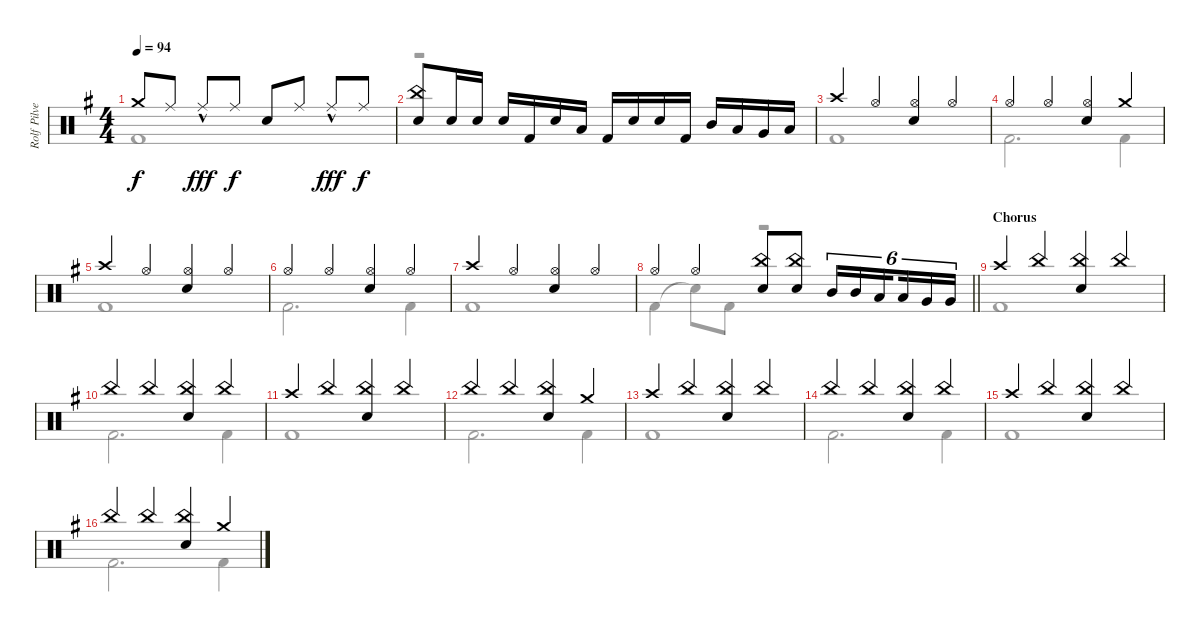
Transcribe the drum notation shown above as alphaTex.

\track ("Rolf Pilve - drums" "Rolf Pilve") {instrument percussion}
\staff {score}
\articulation defaults
\voice
\ts (4 4)
\tempo 94
\clef neutral
\ks eminor "Crash medium (hit)".8{dy f} "Ride (middle)".8 "Ride (middle)"{hac}.8{dy fff} "Ride (middle)".8{dy f} "Snare (hit) 2".8 "Ride (middle)".8 "Ride (middle)"{hac}.8{dy fff} "Ride (middle)".8{dy f}
|
("China (hit)" "Snare (hit) 2").8 "Snare (hit) 2".16 "Snare (hit) 2".16 "Snare (hit) 2".16 "Kick (hit) 2".16 "Snare (hit) 2".16 "Low Tom (hit)".16 "Kick (hit) 2".16 "Snare (hit) 2".16 "Snare (hit) 2".16 "Kick (hit) 2".16 "Mid Tom (hit)".16 "Low Tom (hit)".16 "Very Low Tom (hit)".16 "Low Floor Tom (hit)".16 |
"Crash high (hit)".4 "Hi-Hat (open)".4 ("Hi-Hat (open)" "Snare (hit) 2").4 "Hi-Hat (open)".4 |
"Hi-Hat (open)".4 "Hi-Hat (open)".4 ("Hi-Hat (open)" "Snare (hit) 2").4 "Crash medium (hit)".4 |
"Crash high (hit)".4 "Hi-Hat (open)".4 ("Hi-Hat (open)" "Snare (hit) 2").4 "Hi-Hat (open)".4 |
"Hi-Hat (open)".4 "Hi-Hat (open)".4 ("Hi-Hat (open)" "Snare (hit) 2").4 "Hi-Hat (open)".4 |
"Crash high (hit)".4 "Hi-Hat (open)".4 ("Hi-Hat (open)" "Snare (hit) 2").4 "Hi-Hat (open)".4 |
\barLineRight lightlight "Hi-Hat (open)".4 "Hi-Hat (open)".4
("China (hit)" "Snare (hit) 2").8 ("China (hit)" "Snare (hit) 2").8 "Mid Tom (hit)".16{tu (6 4)} "Mid Tom (hit)".16{tu (6 4)} "Low Tom (hit)".16{tu (6 4) beam splitsecondary} "Low Tom (hit)".16{tu (6 4)} "Very Low Tom (hit)".16{tu (6 4)} "Very Low Tom (hit)".16{tu (6 4)} |
\section ("" "Chorus")
"Crash high (hit)".4 "China (hit)".4 ("China (hit)" "Snare (hit) 2").4 "China (hit)".4 |
"China (hit)".4 "China (hit)".4 ("China (hit)" "Snare (hit) 2").4 "China (hit)".4 |
"Crash high (hit)".4 "China (hit)".4 ("China (hit)" "Snare (hit) 2").4 "China (hit)".4 |
"China (hit)".4 "China (hit)".4 ("China (hit)" "Snare (hit) 2").4 "Crash medium (hit)".4 |
"Crash high (hit)".4 "China (hit)".4 ("China (hit)" "Snare (hit) 2").4 "China (hit)".4 |
"China (hit)".4 "China (hit)".4 ("China (hit)" "Snare (hit) 2").4 "China (hit)".4 |
"Crash high (hit)".4 "China (hit)".4 ("China (hit)" "Snare (hit) 2").4 "China (hit)".4 |
"China (hit)".4 "China (hit)".4 ("China (hit)" "Snare (hit) 2").4 "Crash medium (hit)".4
\voice
\clef neutral
\ottava regular
\simile none
\ks eminor "Kick (hit) 2".1{dy f}
|
r.1 |
"Kick (hit) 2".1 |
"Kick (hit) 2".2{d} "Kick (hit) 2".4 |
"Kick (hit) 2".1 |
"Kick (hit) 2".2{d} "Kick (hit) 2".4 |
"Kick (hit) 2".1 |
\barLineRight lightlight "Kick (hit) 2".4 "Snare (hit)"{t}.8 "Kick (hit) 2".8
r.2 |
"Kick (hit) 2".1 |
"Kick (hit) 2".2{d} "Kick (hit) 2".4 |
"Kick (hit) 2".1 |
"Kick (hit) 2".2{d} "Kick (hit) 2".4 |
"Kick (hit) 2".1 |
"Kick (hit) 2".2{d} "Kick (hit) 2".4 |
"Kick (hit) 2".1 |
"Kick (hit) 2".2{d} "Kick (hit) 2".4
